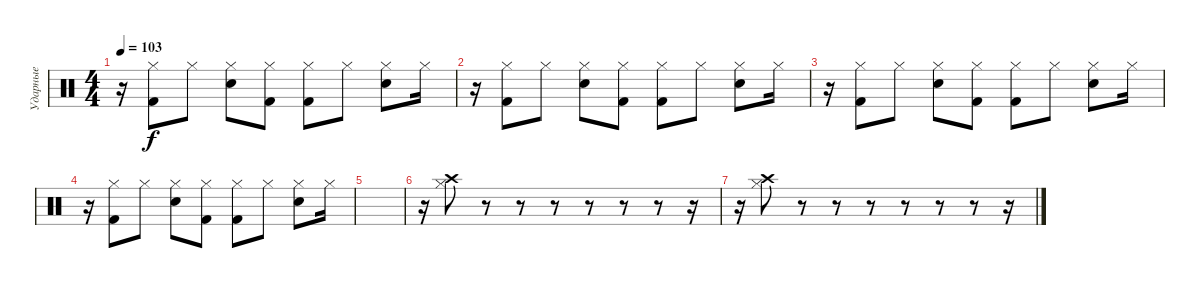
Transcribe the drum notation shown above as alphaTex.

\track ("Ударные" "Ударные") {instrument percussion}
\staff {score}
\articulation defaults
\ts (4 4)
\tempo 103
\clef neutral
\ks c
r.16{dy f} ("Hi-Hat (closed)" "Kick (hit) 2").8 "Hi-Hat (closed)".8 ("Hi-Hat (closed)" "Electric Snare (hit)").8 ("Hi-Hat (closed)" "Kick (hit) 2").8 ("Hi-Hat (closed)" "Kick (hit) 2").8 "Hi-Hat (closed)".8 ("Hi-Hat (closed)" "Electric Snare (hit)").8 "Hi-Hat (closed)".16 |
r.16 ("Hi-Hat (closed)" "Kick (hit) 2").8 "Hi-Hat (closed)".8 ("Hi-Hat (closed)" "Electric Snare (hit)").8 ("Hi-Hat (closed)" "Kick (hit) 2").8 ("Hi-Hat (closed)" "Kick (hit) 2").8 "Hi-Hat (closed)".8 ("Hi-Hat (closed)" "Electric Snare (hit)").8 "Hi-Hat (closed)".16 |
r.16 ("Hi-Hat (closed)" "Kick (hit) 2").8 "Hi-Hat (closed)".8 ("Hi-Hat (closed)" "Electric Snare (hit)").8 ("Hi-Hat (closed)" "Kick (hit) 2").8 ("Hi-Hat (closed)" "Kick (hit) 2").8 "Hi-Hat (closed)".8 ("Hi-Hat (closed)" "Electric Snare (hit)").8 "Hi-Hat (closed)".16 |
r.16 ("Hi-Hat (closed)" "Kick (hit) 2").8 "Hi-Hat (closed)".8 ("Hi-Hat (closed)" "Electric Snare (hit)").8 ("Hi-Hat (closed)" "Kick (hit) 2").8 ("Hi-Hat (closed)" "Kick (hit) 2").8 "Hi-Hat (closed)".8 ("Hi-Hat (closed)" "Electric Snare (hit)").8 "Hi-Hat (closed)".16 |
|
r.16 ("Hi-Hat (closed)" "Crash high (hit)").8 r.8 r.8 r.8 r.8 r.8 r.8 r.16 |
r.16 ("Hi-Hat (closed)" "Crash high (hit)").8 r.8 r.8 r.8 r.8 r.8 r.8 r.16
